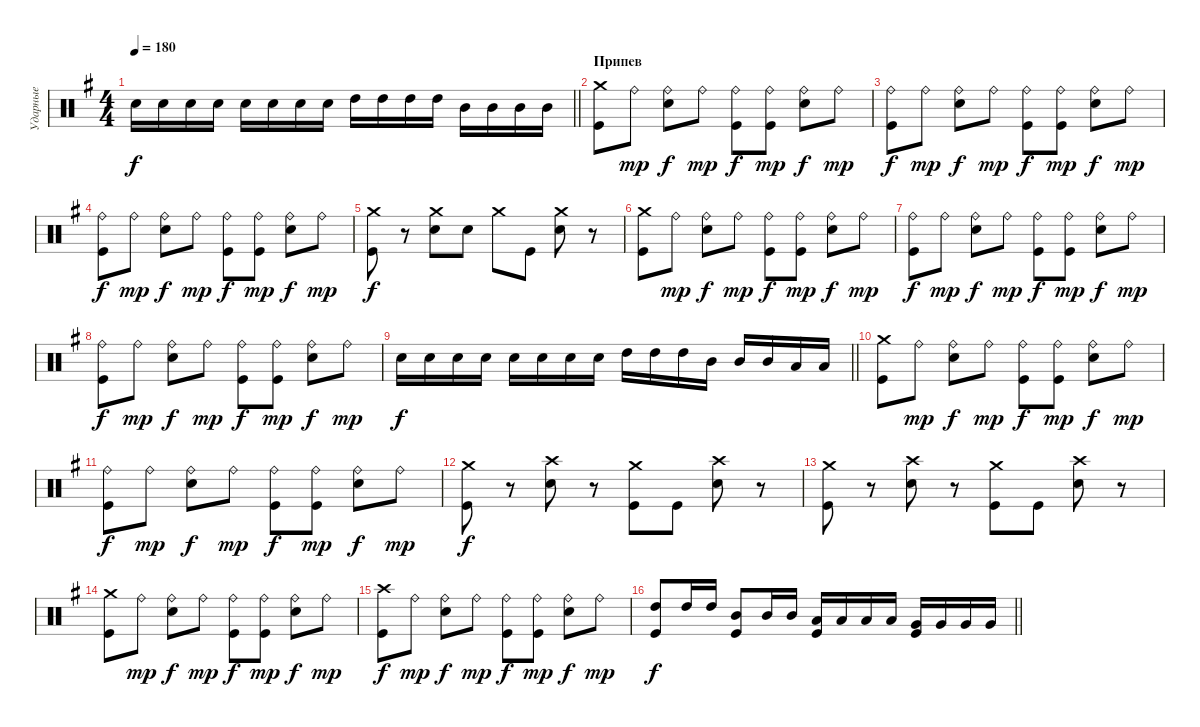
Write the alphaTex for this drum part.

\track ("Ударные" "Ударные") {instrument percussion}
\staff {score}
\articulation defaults
\ts (4 4)
\tempo 180
\clef neutral
\barLineRight lightlight
\ks g "Electric Snare (hit)".16{dy f} "Electric Snare (hit)".16 "Electric Snare (hit)".16 "Electric Snare (hit)".16 "Electric Snare (hit)".16 "Electric Snare (hit)".16 "Electric Snare (hit)".16 "Electric Snare (hit)".16 "High Tom (hit)".16 "High Tom (hit)".16 "High Tom (hit)".16 "High Tom (hit)".16 "Mid Tom (hit)".16 "Mid Tom (hit)".16 "Mid Tom (hit)".16 "Mid Tom (hit)".16
|
\section ("" "Припев")
("Crash medium (hit)" "Kick (hit)").8 "Ride (bell)".8{dy mp} ("Ride (bell)" "Electric Snare (hit)").8{dy f} "Ride (bell)".8{dy mp} ("Ride (bell)" "Kick (hit)").8{dy f} ("Ride (bell)" "Kick (hit)").8{dy mp} ("Ride (bell)" "Electric Snare (hit)").8{dy f} "Ride (bell)".8{dy mp} |
("Ride (bell)" "Kick (hit)").8{dy f} "Ride (bell)".8{dy mp} ("Ride (bell)" "Electric Snare (hit)").8{dy f} "Ride (bell)".8{dy mp} ("Ride (bell)" "Kick (hit)").8{dy f} ("Ride (bell)" "Kick (hit)").8{dy mp} ("Ride (bell)" "Electric Snare (hit)").8{dy f} "Ride (bell)".8{dy mp} |
("Ride (bell)" "Kick (hit)").8{dy f} "Ride (bell)".8{dy mp} ("Ride (bell)" "Electric Snare (hit)").8{dy f} "Ride (bell)".8{dy mp} ("Ride (bell)" "Kick (hit)").8{dy f} ("Ride (bell)" "Kick (hit)").8{dy mp} ("Ride (bell)" "Electric Snare (hit)").8{dy f} "Ride (bell)".8{dy mp} |
("Crash medium (hit)" "Kick (hit)").8{dy f} r.8 ("Crash medium (hit)" "Electric Snare (hit)").8 "Electric Snare (hit)".8 "Crash medium (hit)".8 "Kick (hit)".8 ("Crash medium (hit)" "Electric Snare (hit)").8 r.8 |
("Crash medium (hit)" "Kick (hit)").8 "Ride (bell)".8{dy mp} ("Ride (bell)" "Electric Snare (hit)").8{dy f} "Ride (bell)".8{dy mp} ("Ride (bell)" "Kick (hit)").8{dy f} ("Ride (bell)" "Kick (hit)").8{dy mp} ("Ride (bell)" "Electric Snare (hit)").8{dy f} "Ride (bell)".8{dy mp} |
("Ride (bell)" "Kick (hit)").8{dy f} "Ride (bell)".8{dy mp} ("Ride (bell)" "Electric Snare (hit)").8{dy f} "Ride (bell)".8{dy mp} ("Ride (bell)" "Kick (hit)").8{dy f} ("Ride (bell)" "Kick (hit)").8{dy mp} ("Ride (bell)" "Electric Snare (hit)").8{dy f} "Ride (bell)".8{dy mp} |
("Ride (bell)" "Kick (hit)").8{dy f} "Ride (bell)".8{dy mp} ("Ride (bell)" "Electric Snare (hit)").8{dy f} "Ride (bell)".8{dy mp} ("Ride (bell)" "Kick (hit)").8{dy f} ("Ride (bell)" "Kick (hit)").8{dy mp} ("Ride (bell)" "Electric Snare (hit)").8{dy f} "Ride (bell)".8{dy mp} |
\barLineRight lightlight "Electric Snare (hit)".16{dy f} "Electric Snare (hit)".16 "Electric Snare (hit)".16 "Electric Snare (hit)".16 "Electric Snare (hit)".16 "Electric Snare (hit)".16 "Electric Snare (hit)".16 "Electric Snare (hit)".16 "High Tom (hit)".16 "High Tom (hit)".16 "High Tom (hit)".16 "Mid Tom (hit)".16 "Mid Tom (hit)".16 "Mid Tom (hit)".16 "Low Tom (hit)".16 "Low Tom (hit)".16
|
\section ("" " ")
("Crash medium (hit)" "Kick (hit)").8 "Ride (bell)".8{dy mp} ("Ride (bell)" "Electric Snare (hit)").8{dy f} "Ride (bell)".8{dy mp} ("Ride (bell)" "Kick (hit)").8{dy f} ("Ride (bell)" "Kick (hit)").8{dy mp} ("Ride (bell)" "Electric Snare (hit)").8{dy f} "Ride (bell)".8{dy mp} |
("Ride (bell)" "Kick (hit)").8{dy f} "Ride (bell)".8{dy mp} ("Ride (bell)" "Electric Snare (hit)").8{dy f} "Ride (bell)".8{dy mp} ("Ride (bell)" "Kick (hit)").8{dy f} ("Ride (bell)" "Kick (hit)").8{dy mp} ("Ride (bell)" "Electric Snare (hit)").8{dy f} "Ride (bell)".8{dy mp} |
("Crash medium (hit)" "Kick (hit)").8{dy f} r.8 ("Crash high (hit)" "Electric Snare (hit)").8 r.8 ("Crash medium (hit)" "Kick (hit)").8 "Kick (hit)".8 ("Crash high (hit)" "Electric Snare (hit)").8 r.8 |
("Crash medium (hit)" "Kick (hit)").8 r.8 ("Crash high (hit)" "Electric Snare (hit)").8 r.8 ("Crash medium (hit)" "Kick (hit)").8 "Kick (hit)".8 ("Crash high (hit)" "Electric Snare (hit)").8 r.8 |
("Crash medium (hit)" "Kick (hit)").8 "Ride (bell)".8{dy mp} ("Ride (bell)" "Electric Snare (hit)").8{dy f} "Ride (bell)".8{dy mp} ("Ride (bell)" "Kick (hit)").8{dy f} ("Ride (bell)" "Kick (hit)").8{dy mp} ("Ride (bell)" "Electric Snare (hit)").8{dy f} "Ride (bell)".8{dy mp} |
("Crash high (hit)" "Kick (hit)").8{dy f} "Ride (bell)".8{dy mp} ("Ride (bell)" "Electric Snare (hit)").8{dy f} "Ride (bell)".8{dy mp} ("Ride (bell)" "Kick (hit)").8{dy f} ("Ride (bell)" "Kick (hit)").8{dy mp} ("Ride (bell)" "Electric Snare (hit)").8{dy f} "Ride (bell)".8{dy mp} |
\barLineRight lightlight
("High Tom (hit)" "Kick (hit)").8{dy f} "High Tom (hit)".16 "High Tom (hit)".16 ("Mid Tom (hit)" "Kick (hit)").8 "Mid Tom (hit)".16 "Mid Tom (hit)".16 ("Low Tom (hit)" "Kick (hit)").16 "Low Tom (hit)".16 "Low Tom (hit)".16 "Low Tom (hit)".16 ("Very Low Tom (hit)" "Kick (hit)").16 "Very Low Tom (hit)".16 "Very Low Tom (hit)".16 "Very Low Tom (hit)".16
